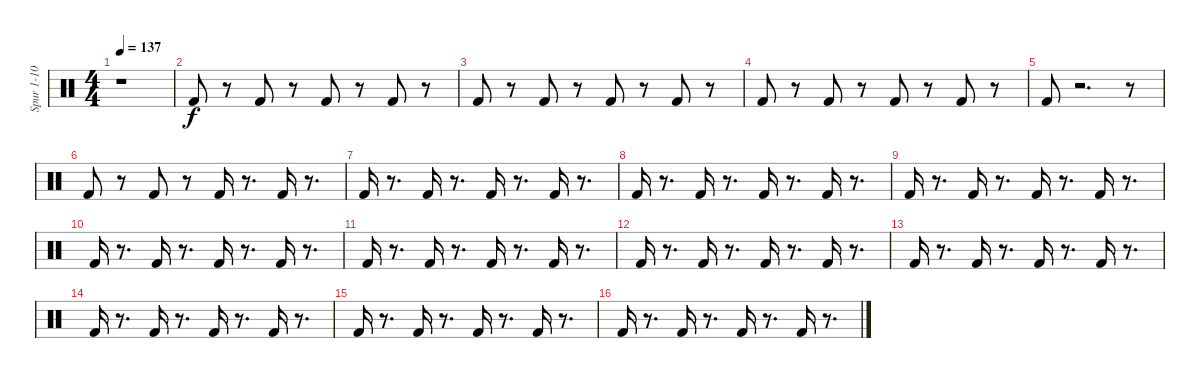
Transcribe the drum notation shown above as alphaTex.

\track ("Spur 1-10" "Spur 1-10") {instrument percussion}
\staff {score}
\articulation defaults
\ts (4 4)
\tempo 137
\clef neutral
\ks c
r.1{dy f} |
"Kick (hit) 2".8 r.8 "Kick (hit) 2".8 r.8 "Kick (hit) 2".8 r.8 "Kick (hit) 2".8 r.8 |
"Kick (hit) 2".8 r.8 "Kick (hit) 2".8 r.8 "Kick (hit) 2".8 r.8 "Kick (hit) 2".8 r.8 |
"Kick (hit) 2".8 r.8 "Kick (hit) 2".8 r.8 "Kick (hit) 2".8 r.8 "Kick (hit) 2".8 r.8 |
"Kick (hit) 2".8 r.2{d} r.8 |
"Kick (hit) 2".8 r.8 "Kick (hit) 2".8 r.8 "Kick (hit) 2".16 r.8{d} "Kick (hit) 2".16 r.8{d} |
"Kick (hit) 2".16 r.8{d} "Kick (hit) 2".16 r.8{d} "Kick (hit) 2".16 r.8{d} "Kick (hit) 2".16 r.8{d} |
"Kick (hit) 2".16 r.8{d} "Kick (hit) 2".16 r.8{d} "Kick (hit) 2".16 r.8{d} "Kick (hit) 2".16 r.8{d} |
"Kick (hit) 2".16 r.8{d} "Kick (hit) 2".16 r.8{d} "Kick (hit) 2".16 r.8{d} "Kick (hit) 2".16 r.8{d} |
"Kick (hit) 2".16 r.8{d} "Kick (hit) 2".16 r.8{d} "Kick (hit) 2".16 r.8{d} "Kick (hit) 2".16 r.8{d} |
"Kick (hit) 2".16 r.8{d} "Kick (hit) 2".16 r.8{d} "Kick (hit) 2".16 r.8{d} "Kick (hit) 2".16 r.8{d} |
"Kick (hit) 2".16 r.8{d} "Kick (hit) 2".16 r.8{d} "Kick (hit) 2".16 r.8{d} "Kick (hit) 2".16 r.8{d} |
"Kick (hit) 2".16 r.8{d} "Kick (hit) 2".16 r.8{d} "Kick (hit) 2".16 r.8{d} "Kick (hit) 2".16 r.8{d} |
"Kick (hit) 2".16 r.8{d} "Kick (hit) 2".16 r.8{d} "Kick (hit) 2".16 r.8{d} "Kick (hit) 2".16 r.8{d} |
"Kick (hit) 2".16 r.8{d} "Kick (hit) 2".16 r.8{d} "Kick (hit) 2".16 r.8{d} "Kick (hit) 2".16 r.8{d} |
"Kick (hit) 2".16 r.8{d} "Kick (hit) 2".16 r.8{d} "Kick (hit) 2".16 r.8{d} "Kick (hit) 2".16 r.8{d}
